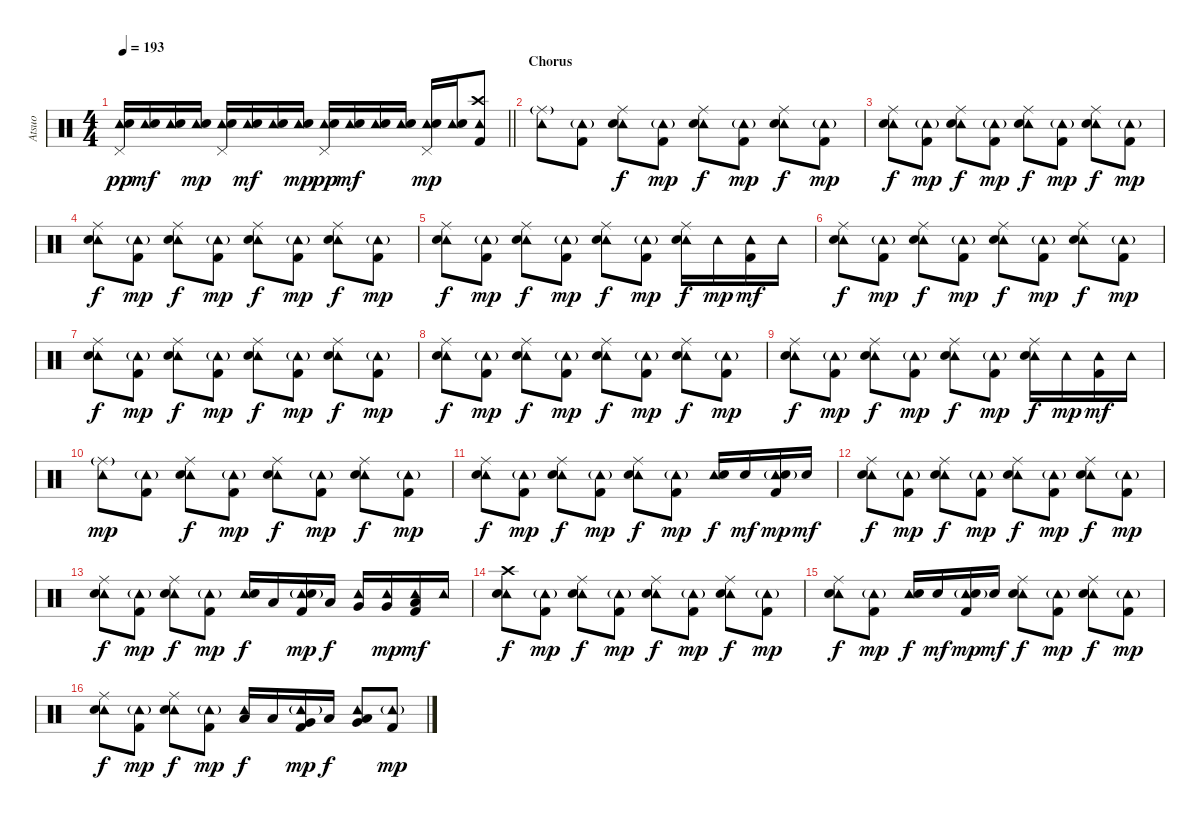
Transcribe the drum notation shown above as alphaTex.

\track ("Atsuo" "Atsuo") {instrument percussion}
\staff {score}
\articulation defaults
\ts (4 4)
\tempo 193
\clef neutral
\barLineRight lightlight
\ks c
("Pedal Hi-Hat (hit)" "Tambourine (hit)" "Electric Snare (hit)").16{dy pp} ("Tambourine (hit)" "Electric Snare (hit)").16{dy mf} ("Tambourine (hit)" "Electric Snare (hit)").16 ("Tambourine (hit)" "Electric Snare (hit)").16{dy mp} ("Pedal Hi-Hat (hit)" "Tambourine (hit)" "Electric Snare (hit)").16 ("Tambourine (hit)" "Electric Snare (hit)").16{dy mf} ("Tambourine (hit)" "Electric Snare (hit)").16 ("Tambourine (hit)" "Electric Snare (hit)").16{dy mp} ("Pedal Hi-Hat (hit)" "Tambourine (hit)" "Electric Snare (hit)").16{dy pp} ("Tambourine (hit)" "Electric Snare (hit)").16{dy mf} ("Tambourine (hit)" "Electric Snare (hit)").16 ("Tambourine (hit)" "Electric Snare (hit)").16 ("Pedal Hi-Hat (hit)" "Tambourine (hit)" "Electric Snare (hit)").16{dy mp} ("Tambourine (hit)" "Electric Snare (hit)").16 ("Tambourine (hit)" "Crash high (hit)" "Kick (hit) 2").8 |
\section ("" "Chorus")
("Ride (middle)"{g} "Tambourine (hit)").8 ("Tambourine (hit)"{g} "Kick (hit) 2").8 ("Ride (middle)" "Tambourine (hit)" "Electric Snare (hit)").8{dy f} ("Tambourine (hit)"{g} "Kick (hit) 2").8{dy mp} ("Ride (middle)" "Tambourine (hit)" "Electric Snare (hit)").8{dy f} ("Tambourine (hit)"{g} "Kick (hit) 2").8{dy mp} ("Ride (middle)" "Tambourine (hit)" "Electric Snare (hit)").8{dy f} ("Tambourine (hit)"{g} "Kick (hit) 2").8{dy mp} |
("Ride (middle)" "Tambourine (hit)" "Electric Snare (hit)").8{dy f} ("Tambourine (hit)"{g} "Kick (hit) 2").8{dy mp} ("Ride (middle)" "Tambourine (hit)" "Electric Snare (hit)").8{dy f} ("Tambourine (hit)"{g} "Kick (hit) 2").8{dy mp} ("Ride (middle)" "Tambourine (hit)" "Electric Snare (hit)").8{dy f} ("Tambourine (hit)"{g} "Kick (hit) 2").8{dy mp} ("Ride (middle)" "Tambourine (hit)" "Electric Snare (hit)").8{dy f} ("Tambourine (hit)"{g} "Kick (hit) 2").8{dy mp} |
("Ride (middle)" "Tambourine (hit)" "Electric Snare (hit)").8{dy f} ("Tambourine (hit)"{g} "Kick (hit) 2").8{dy mp} ("Ride (middle)" "Tambourine (hit)" "Electric Snare (hit)").8{dy f} ("Tambourine (hit)"{g} "Kick (hit) 2").8{dy mp} ("Ride (middle)" "Tambourine (hit)" "Electric Snare (hit)").8{dy f} ("Tambourine (hit)"{g} "Kick (hit) 2").8{dy mp} ("Ride (middle)" "Tambourine (hit)" "Electric Snare (hit)").8{dy f} ("Tambourine (hit)"{g} "Kick (hit) 2").8{dy mp} |
("Ride (middle)" "Tambourine (hit)" "Electric Snare (hit)").8{dy f} ("Tambourine (hit)"{g} "Kick (hit) 2").8{dy mp} ("Ride (middle)" "Tambourine (hit)" "Electric Snare (hit)").8{dy f} ("Tambourine (hit)"{g} "Kick (hit) 2").8{dy mp} ("Ride (middle)" "Tambourine (hit)" "Electric Snare (hit)").8{dy f} ("Tambourine (hit)"{g} "Kick (hit) 2").8{dy mp} ("Ride (middle)" "Tambourine (hit)" "Electric Snare (hit)").16{dy f} "Tambourine (hit)".16{dy mp} ("Tambourine (hit)" "Kick (hit) 2").16{dy mf} "Tambourine (hit)".16 |
("Ride (middle)" "Tambourine (hit)" "Electric Snare (hit)").8{dy f} ("Tambourine (hit)"{g} "Kick (hit) 2").8{dy mp} ("Ride (middle)" "Tambourine (hit)" "Electric Snare (hit)").8{dy f} ("Tambourine (hit)"{g} "Kick (hit) 2").8{dy mp} ("Ride (middle)" "Tambourine (hit)" "Electric Snare (hit)").8{dy f} ("Tambourine (hit)"{g} "Kick (hit) 2").8{dy mp} ("Ride (middle)" "Tambourine (hit)" "Electric Snare (hit)").8{dy f} ("Tambourine (hit)"{g} "Kick (hit) 2").8{dy mp} |
("Ride (middle)" "Tambourine (hit)" "Electric Snare (hit)").8{dy f} ("Tambourine (hit)"{g} "Kick (hit) 2").8{dy mp} ("Ride (middle)" "Tambourine (hit)" "Electric Snare (hit)").8{dy f} ("Tambourine (hit)"{g} "Kick (hit) 2").8{dy mp} ("Ride (middle)" "Tambourine (hit)" "Electric Snare (hit)").8{dy f} ("Tambourine (hit)"{g} "Kick (hit) 2").8{dy mp} ("Ride (middle)" "Tambourine (hit)" "Electric Snare (hit)").8{dy f} ("Tambourine (hit)"{g} "Kick (hit) 2").8{dy mp} |
("Ride (middle)" "Tambourine (hit)" "Electric Snare (hit)").8{dy f} ("Tambourine (hit)"{g} "Kick (hit) 2").8{dy mp} ("Ride (middle)" "Tambourine (hit)" "Electric Snare (hit)").8{dy f} ("Tambourine (hit)"{g} "Kick (hit) 2").8{dy mp} ("Ride (middle)" "Tambourine (hit)" "Electric Snare (hit)").8{dy f} ("Tambourine (hit)"{g} "Kick (hit) 2").8{dy mp} ("Ride (middle)" "Tambourine (hit)" "Electric Snare (hit)").8{dy f} ("Tambourine (hit)"{g} "Kick (hit) 2").8{dy mp} |
("Ride (middle)" "Tambourine (hit)" "Electric Snare (hit)").8{dy f} ("Tambourine (hit)"{g} "Kick (hit) 2").8{dy mp} ("Ride (middle)" "Tambourine (hit)" "Electric Snare (hit)").8{dy f} ("Tambourine (hit)"{g} "Kick (hit) 2").8{dy mp} ("Ride (middle)" "Tambourine (hit)" "Electric Snare (hit)").8{dy f} ("Tambourine (hit)"{g} "Kick (hit) 2").8{dy mp} ("Ride (middle)" "Tambourine (hit)" "Electric Snare (hit)").16{dy f} "Tambourine (hit)".16{dy mp} ("Tambourine (hit)" "Kick (hit) 2").16{dy mf} "Tambourine (hit)".16 |
("Ride (middle)"{g} "Tambourine (hit)").8{dy mp} ("Tambourine (hit)"{g} "Kick (hit) 2").8 ("Ride (middle)" "Tambourine (hit)" "Electric Snare (hit)").8{dy f} ("Tambourine (hit)"{g} "Kick (hit) 2").8{dy mp} ("Ride (middle)" "Tambourine (hit)" "Electric Snare (hit)").8{dy f} ("Tambourine (hit)"{g} "Kick (hit) 2").8{dy mp} ("Ride (middle)" "Tambourine (hit)" "Electric Snare (hit)").8{dy f} ("Tambourine (hit)"{g} "Kick (hit) 2").8{dy mp} |
("Ride (middle)" "Tambourine (hit)" "Electric Snare (hit)").8{dy f} ("Tambourine (hit)"{g} "Kick (hit) 2").8{dy mp} ("Ride (middle)" "Tambourine (hit)" "Electric Snare (hit)").8{dy f} ("Tambourine (hit)"{g} "Kick (hit) 2").8{dy mp} ("Ride (middle)" "Tambourine (hit)" "Electric Snare (hit)").8{dy f} ("Tambourine (hit)"{g} "Kick (hit) 2").8{dy mp} ("Tambourine (hit)" "Electric Snare (hit)").16{dy f} "Electric Snare (hit)".16{dy mf} ("Tambourine (hit)"{g} "Electric Snare (hit)" "Kick (hit) 2").16{dy mp} "Electric Snare (hit)".16{dy mf} |
("Ride (middle)" "Tambourine (hit)" "Electric Snare (hit)").8{dy f} ("Tambourine (hit)"{g} "Kick (hit) 2").8{dy mp} ("Ride (middle)" "Tambourine (hit)" "Electric Snare (hit)").8{dy f} ("Tambourine (hit)"{g} "Kick (hit) 2").8{dy mp} ("Ride (middle)" "Tambourine (hit)" "Electric Snare (hit)").8{dy f} ("Tambourine (hit)"{g} "Kick (hit) 2").8{dy mp} ("Ride (middle)" "Tambourine (hit)" "Electric Snare (hit)").8{dy f} ("Tambourine (hit)"{g} "Kick (hit) 2").8{dy mp} |
("Ride (middle)" "Tambourine (hit)" "Electric Snare (hit)").8{dy f} ("Tambourine (hit)"{g} "Kick (hit) 2").8{dy mp} ("Ride (middle)" "Tambourine (hit)" "Electric Snare (hit)").8{dy f} ("Tambourine (hit)"{g} "Kick (hit) 2").8{dy mp} ("Tambourine (hit)" "Electric Snare (hit)").16{dy f} "Low Tom (hit)".16 ("Tambourine (hit)"{g} "Electric Snare (hit)" "Kick (hit) 2").16{dy mp} "Low Tom (hit)".16{dy f} ("Tambourine (hit)" "Very Low Tom (hit)").16 ("Tambourine (hit)" "Very Low Tom (hit)").16{dy mp} ("Tambourine (hit)" "Low Floor Tom (hit)" "Kick (hit) 2").16{dy mf} "Tambourine (hit)".16 |
("Tambourine (hit)" "Crash high (hit)" "Electric Snare (hit)").8{dy f} ("Tambourine (hit)"{g} "Kick (hit) 2").8{dy mp} ("Ride (middle)" "Tambourine (hit)" "Electric Snare (hit)").8{dy f} ("Tambourine (hit)"{g} "Kick (hit) 2").8{dy mp} ("Ride (middle)" "Tambourine (hit)" "Electric Snare (hit)").8{dy f} ("Tambourine (hit)"{g} "Kick (hit) 2").8{dy mp} ("Ride (middle)" "Tambourine (hit)" "Electric Snare (hit)").8{dy f} ("Tambourine (hit)"{g} "Kick (hit) 2").8{dy mp} |
("Ride (middle)" "Tambourine (hit)" "Electric Snare (hit)").8{dy f} ("Tambourine (hit)"{g} "Kick (hit) 2").8{dy mp} ("Tambourine (hit)" "Electric Snare (hit)").16{dy f} "Electric Snare (hit)".16{dy mf} ("Tambourine (hit)"{g} "Electric Snare (hit)" "Kick (hit) 2").16{dy mp} "Electric Snare (hit)".16{dy mf} ("Ride (middle)" "Tambourine (hit)" "Electric Snare (hit)").8{dy f} ("Tambourine (hit)"{g} "Kick (hit) 2").8{dy mp} ("Ride (middle)" "Tambourine (hit)" "Electric Snare (hit)").8{dy f} ("Tambourine (hit)"{g} "Kick (hit) 2").8{dy mp} |
("Ride (middle)" "Tambourine (hit)" "Electric Snare (hit)").8{dy f} ("Tambourine (hit)"{g} "Kick (hit) 2").8{dy mp} ("Ride (middle)" "Tambourine (hit)" "Electric Snare (hit)").8{dy f} ("Tambourine (hit)"{g} "Kick (hit) 2").8{dy mp} ("Tambourine (hit)" "Low Tom (hit)").16{dy f} "Low Tom (hit)".16 ("Tambourine (hit)"{g} "Very Low Tom (hit)" "Kick (hit) 2").16{dy mp} "Low Floor Tom (hit)".16{dy f} ("Tambourine (hit)" "Very Low Tom (hit)" "Low Floor Tom (hit)").8 ("Tambourine (hit)"{g} "Kick (hit) 2").8{dy mp}
